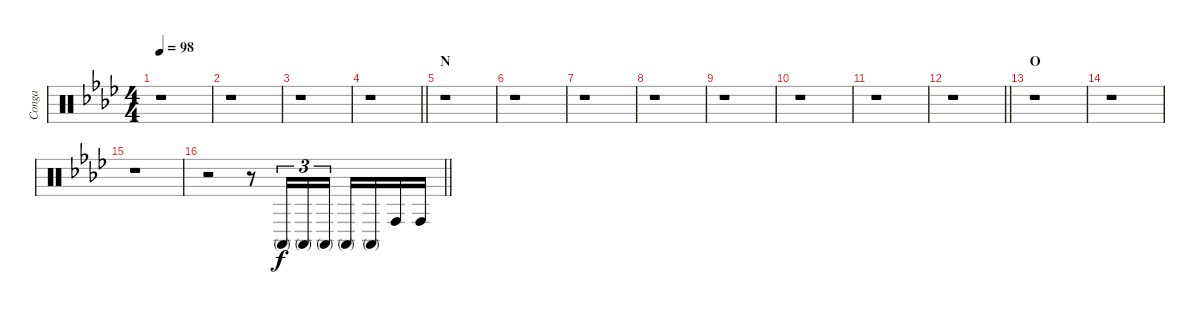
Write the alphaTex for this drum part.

\track ("Conga" "Conga") {instrument percussion}
\staff {score}
\articulation defaults
\ts (4 4)
\tempo 98
\clef neutral
\ks ab
r.1{dy f} |
r.1 |
r.1 |
\barLineRight lightlight
r.1 |
\section ("" "N")
r.1 |
r.1 |
r.1 |
r.1 |
r.1 |
r.1 |
r.1 |
\barLineRight lightlight
r.1 |
\section ("" "O")
r.1 |
r.1 |
r.1 |
\barLineRight lightlight
r.2 r.8 "Conga high (mute)".16{tu (3 2)} "Conga high (mute)".16{tu (3 2)} "Conga high (mute)".16{tu (3 2)} "Conga high (mute)".16 "Conga high (mute)".16 "Conga high (hit)".16 "Conga high (hit)".16
